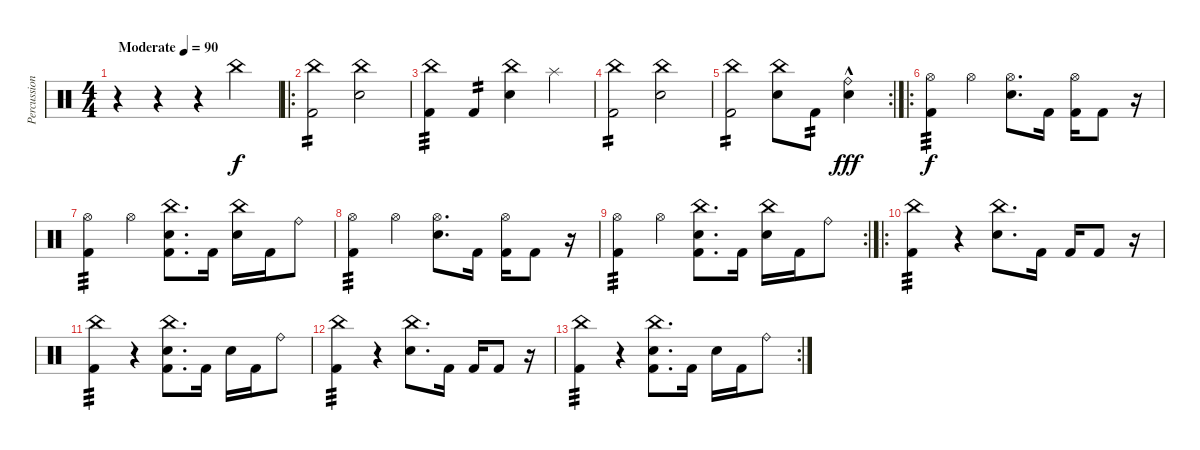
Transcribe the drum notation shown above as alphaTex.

\track ("Percussion" "Percussion") {instrument percussion}
\staff {score}
\articulation defaults
\ts (4 4)
\tempo (90 "Moderate")
\clef neutral
\ks c
r.4{dy f} r.4 r.4 "China (hit)".4 |
\ro
("China (hit)" "Kick (hit) 2").2{tp 2} ("China (hit)" "Snare (hit) 2").2 |
("China (hit)" "Kick (hit) 2").4{tp 3} "Kick (hit) 2".4{tp 2} ("China (hit)" "Snare (hit) 2").4 "Splash (hit)".4 |
("China (hit)" "Kick (hit) 2").2{tp 2} ("China (hit)" "Snare (hit) 2").2 |
\rc 2
("China (hit)" "Kick (hit) 2").2{tp 2} ("China (hit)" "Snare (hit) 2").8 "Kick (hit) 2".8{tp 2} ("Ride (bell)"{hac} "Snare (hit) 2").4{dy fff} |
\ro
("Hi-Hat (open)" "Kick (hit) 2").4{tp 3 dy f} "Hi-Hat (open)".4 ("Hi-Hat (open)" "Snare (hit) 2").8{d} "Kick (hit) 2".16 ("Hi-Hat (open)" "Kick (hit) 2").16 "Kick (hit) 2".8 r.16 |
("Hi-Hat (open)" "Kick (hit) 2").4{tp 3} "Hi-Hat (open)".4 ("China (hit)" "Kick (hit) 2" "Snare (hit) 2").8{d} "Kick (hit) 2".16 ("China (hit)" "Snare (hit) 2").16 "Kick (hit) 2".16 "Ride (bell)".8 |
("Hi-Hat (open)" "Kick (hit) 2").4{tp 3} "Hi-Hat (open)".4 ("Hi-Hat (open)" "Snare (hit) 2").8{d} "Kick (hit) 2".16 ("Hi-Hat (open)" "Kick (hit) 2").16 "Kick (hit) 2".8 r.16 |
\rc 2
("Hi-Hat (open)" "Kick (hit) 2").4{tp 3} "Hi-Hat (open)".4 ("China (hit)" "Kick (hit) 2" "Snare (hit) 2").8{d} "Kick (hit) 2".16 ("China (hit)" "Snare (hit) 2").16 "Kick (hit) 2".16 "Ride (bell)".8 |
\ro
("China (hit)" "Kick (hit) 2").4{tp 3} r.4 ("China (hit)" "Snare (hit) 2").8{d} "Kick (hit) 2".16 "Kick (hit) 2".16 "Kick (hit) 2".8 r.16 |
("China (hit)" "Kick (hit) 2").4{tp 3} r.4 ("China (hit)" "Kick (hit) 2" "Snare (hit) 2").8{d} "Kick (hit) 2".16 "Snare (hit) 2".16 "Kick (hit) 2".16 "Ride (bell)".8 |
("China (hit)" "Kick (hit) 2").4{tp 3} r.4 ("China (hit)" "Snare (hit) 2").8{d} "Kick (hit) 2".16 "Kick (hit) 2".16 "Kick (hit) 2".8 r.16 |
\rc 2
("China (hit)" "Kick (hit) 2").4{tp 3} r.4 ("China (hit)" "Kick (hit) 2" "Snare (hit) 2").8{d} "Kick (hit) 2".16 "Snare (hit) 2".16 "Kick (hit) 2".16 "Ride (bell)".8
